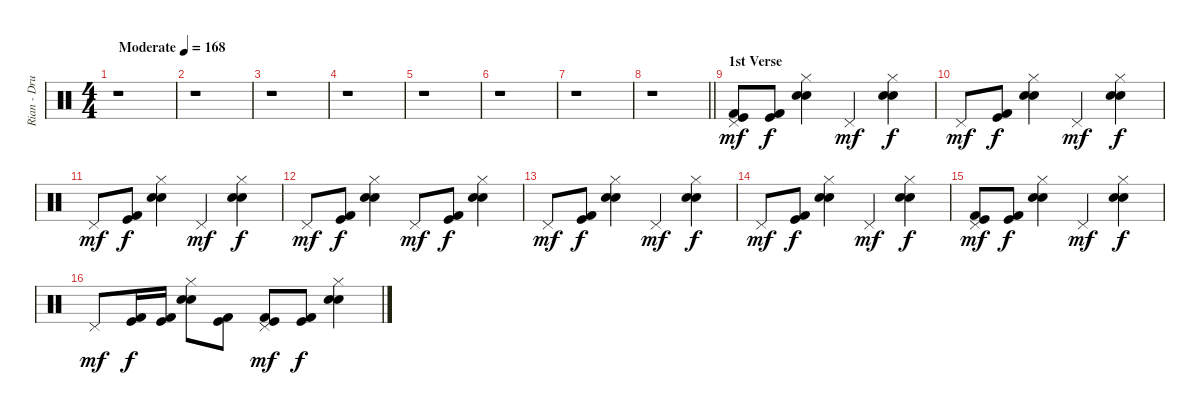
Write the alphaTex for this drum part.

\track ("Rian - Drums" "Rian - Dru") {instrument percussion}
\staff {score}
\articulation defaults
\ts (4 4)
\tempo (168 "Moderate")
\clef neutral
\ks c
r.1{dy mf} |
r.1 |
r.1 |
r.1 |
r.1 |
r.1 |
r.1 |
\barLineRight lightlight
r.1 |
\section ("" "1st Verse")
("Kick (hit) 2" "Kick (hit)" "Pedal Hi-Hat (hit)").8 ("Kick (hit) 2" "Kick (hit)").8{dy f} ("Electric Snare (hit)" "Electric Snare (hit)" "Hi-Hat (closed)").4 "Pedal Hi-Hat (hit)".4{dy mf} ("Electric Snare (hit)" "Electric Snare (hit)" "Hi-Hat (closed)").4{dy f} |
"Pedal Hi-Hat (hit)".8{dy mf} ("Kick (hit) 2" "Kick (hit)").8{dy f} ("Electric Snare (hit)" "Electric Snare (hit)" "Hi-Hat (closed)").4 "Pedal Hi-Hat (hit)".4{dy mf} ("Electric Snare (hit)" "Electric Snare (hit)" "Hi-Hat (closed)").4{dy f} |
"Pedal Hi-Hat (hit)".8{dy mf} ("Kick (hit) 2" "Kick (hit)").8{dy f} ("Electric Snare (hit)" "Electric Snare (hit)" "Hi-Hat (closed)").4 "Pedal Hi-Hat (hit)".4{dy mf} ("Electric Snare (hit)" "Electric Snare (hit)" "Hi-Hat (closed)").4{dy f} |
"Pedal Hi-Hat (hit)".8{dy mf} ("Kick (hit) 2" "Kick (hit)").8{dy f} ("Electric Snare (hit)" "Electric Snare (hit)" "Hi-Hat (closed)").4 "Pedal Hi-Hat (hit)".8{dy mf} ("Kick (hit) 2" "Kick (hit)").8{dy f} ("Electric Snare (hit)" "Electric Snare (hit)" "Hi-Hat (closed)").4 |
"Pedal Hi-Hat (hit)".8{dy mf} ("Kick (hit) 2" "Kick (hit)").8{dy f} ("Electric Snare (hit)" "Electric Snare (hit)" "Hi-Hat (closed)").4 "Pedal Hi-Hat (hit)".4{dy mf} ("Electric Snare (hit)" "Electric Snare (hit)" "Hi-Hat (closed)").4{dy f} |
"Pedal Hi-Hat (hit)".8{dy mf} ("Kick (hit) 2" "Kick (hit)").8{dy f} ("Electric Snare (hit)" "Electric Snare (hit)" "Hi-Hat (closed)").4 "Pedal Hi-Hat (hit)".4{dy mf} ("Electric Snare (hit)" "Electric Snare (hit)" "Hi-Hat (closed)").4{dy f} |
("Kick (hit) 2" "Kick (hit)" "Pedal Hi-Hat (hit)").8{dy mf} ("Kick (hit) 2" "Kick (hit)").8{dy f} ("Electric Snare (hit)" "Electric Snare (hit)" "Hi-Hat (closed)").4 "Pedal Hi-Hat (hit)".4{dy mf} ("Electric Snare (hit)" "Electric Snare (hit)" "Hi-Hat (closed)").4{dy f} |
"Pedal Hi-Hat (hit)".8{dy mf} ("Kick (hit) 2" "Kick (hit)").16{dy f} ("Kick (hit) 2" "Kick (hit)").16 ("Electric Snare (hit)" "Electric Snare (hit)" "Hi-Hat (closed)").8 ("Kick (hit) 2" "Kick (hit)").8 ("Kick (hit) 2" "Kick (hit)" "Pedal Hi-Hat (hit)").8{dy mf} ("Kick (hit) 2" "Kick (hit)").8{dy f} ("Electric Snare (hit)" "Electric Snare (hit)" "Hi-Hat (closed)").4
